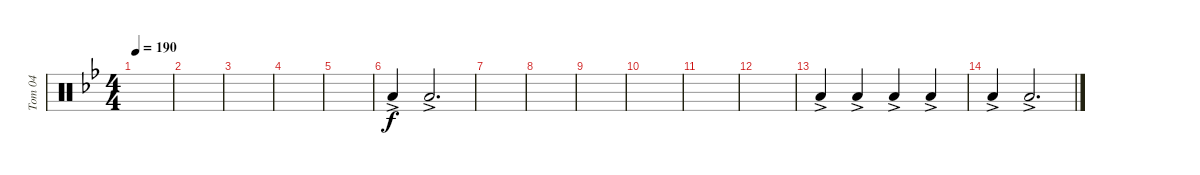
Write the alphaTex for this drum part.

\track ("Tom 04" "Tom 04") {instrument percussion}
\staff {score}
\articulation defaults
\ts (4 4)
\tempo 190
\clef neutral
\ks bb
|
|
|
|
|
"Low Tom (hit)"{ac}.4 "Low Tom (hit)"{ac}.2{d} |
|
|
|
|
|
|
"Low Tom (hit)"{ac}.4 "Low Tom (hit)"{ac}.4 "Low Tom (hit)"{ac}.4 "Low Tom (hit)"{ac}.4 |
"Low Tom (hit)"{ac}.4 "Low Tom (hit)"{ac}.2{d}
